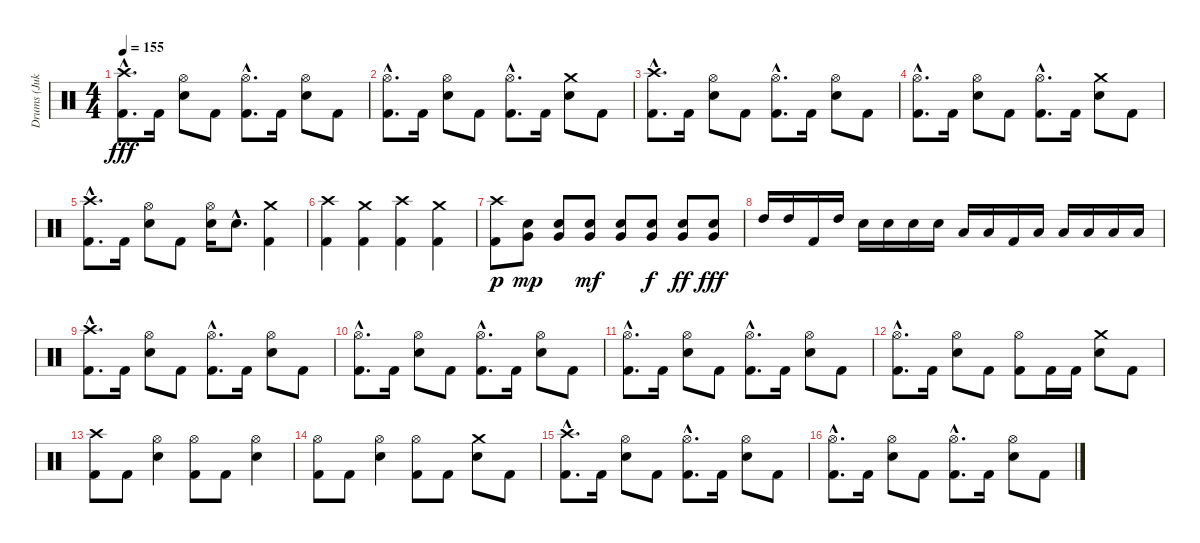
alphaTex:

\track ("Drums (Jukka)" "Drums (Juk") {instrument percussion}
\staff {score}
\articulation defaults
\ts (4 4)
\tempo 155
\clef neutral
\ks c
("Kick (hit) 2"{hac} "Crash high (hit)"{hac}).8{d dy fff} "Kick (hit) 2".16 ("Snare (hit) 2" "Hi-Hat (open)").8 "Kick (hit) 2".8 ("Kick (hit) 2"{hac} "Hi-Hat (open)"{hac}).8{d} "Kick (hit) 2".16 ("Snare (hit) 2" "Hi-Hat (open)").8 "Kick (hit) 2".8 |
("Kick (hit) 2"{hac} "Hi-Hat (open)"{hac}).8{d} "Kick (hit) 2".16 ("Snare (hit) 2" "Hi-Hat (open)").8 "Kick (hit) 2".8 ("Kick (hit) 2"{hac} "Hi-Hat (open)"{hac}).8{d} "Kick (hit) 2".16 ("Snare (hit) 2" "Crash medium (hit)").8 "Kick (hit) 2".8 |
("Kick (hit) 2"{hac} "Crash high (hit)"{hac}).8{d} "Kick (hit) 2".16 ("Snare (hit) 2" "Hi-Hat (open)").8 "Kick (hit) 2".8 ("Kick (hit) 2"{hac} "Hi-Hat (open)"{hac}).8{d} "Kick (hit) 2".16 ("Snare (hit) 2" "Hi-Hat (open)").8 "Kick (hit) 2".8 |
("Kick (hit) 2"{hac} "Hi-Hat (open)"{hac}).8{d} "Kick (hit) 2".16 ("Snare (hit) 2" "Hi-Hat (open)").8 "Kick (hit) 2".8 ("Kick (hit) 2"{hac} "Hi-Hat (open)"{hac}).8{d} "Kick (hit) 2".16 ("Snare (hit) 2" "Crash medium (hit)").8 "Kick (hit) 2".8 |
("Kick (hit) 2"{hac} "Crash high (hit)"{hac}).8{d} "Kick (hit) 2".16 ("Snare (hit) 2" "Hi-Hat (open)").8 "Kick (hit) 2".8 ("Snare (hit) 2" "Hi-Hat (open)").16 "Snare (hit) 2"{hac}.8{d} ("Kick (hit) 2" "Crash medium (hit)").4 |
("Kick (hit) 2" "Crash high (hit)").4 ("Kick (hit) 2" "Crash medium (hit)").4 ("Kick (hit) 2" "Crash high (hit)").4 ("Kick (hit) 2" "Crash medium (hit)").4 |
("Kick (hit) 2" "Crash high (hit)").8{dy p} ("Snare (hit) 2" "Very Low Tom (hit)").8{dy mp} ("Snare (hit) 2" "Very Low Tom (hit)").8 ("Snare (hit) 2" "Very Low Tom (hit)").8{dy mf} ("Snare (hit) 2" "Very Low Tom (hit)").8 ("Snare (hit) 2" "Very Low Tom (hit)").8{dy f} ("Snare (hit) 2" "Very Low Tom (hit)").8{dy ff} ("Snare (hit) 2" "Very Low Tom (hit)").8{dy fff} |
"High Tom (hit)".16 "High Tom (hit)".16 "Kick (hit) 2".16 "High Tom (hit)".16 "Snare (hit) 2".16 "Snare (hit) 2".16 "Snare (hit) 2".16 "Snare (hit) 2".16 "Low Tom (hit)".16 "Low Tom (hit)".16 "Kick (hit) 2".16 "Low Tom (hit)".16 "Low Floor Tom (hit)".16 "Low Floor Tom (hit)".16 "Low Tom (hit)".16 "Low Floor Tom (hit)".16 |
("Kick (hit) 2"{hac} "Crash high (hit)"{hac}).8{d} "Kick (hit) 2".16 ("Snare (hit) 2" "Hi-Hat (open)").8 "Kick (hit) 2".8 ("Kick (hit) 2"{hac} "Hi-Hat (open)"{hac}).8{d} "Kick (hit) 2".16 ("Snare (hit) 2" "Hi-Hat (open)").8 "Kick (hit) 2".8 |
("Kick (hit) 2"{hac} "Hi-Hat (open)"{hac}).8{d} "Kick (hit) 2".16 ("Snare (hit) 2" "Hi-Hat (open)").8 "Kick (hit) 2".8 ("Kick (hit) 2"{hac} "Hi-Hat (open)"{hac}).8{d} "Kick (hit) 2".16 ("Snare (hit) 2" "Hi-Hat (open)").8 "Kick (hit) 2".8 |
("Kick (hit) 2"{hac} "Hi-Hat (open)"{hac}).8{d} "Kick (hit) 2".16 ("Snare (hit) 2" "Hi-Hat (open)").8 "Kick (hit) 2".8 ("Kick (hit) 2"{hac} "Hi-Hat (open)"{hac}).8{d} "Kick (hit) 2".16 ("Snare (hit) 2" "Hi-Hat (open)").8 "Kick (hit) 2".8 |
("Kick (hit) 2"{hac} "Hi-Hat (open)"{hac}).8{d} "Kick (hit) 2".16 ("Snare (hit) 2" "Hi-Hat (open)").8 "Kick (hit) 2".8 ("Kick (hit) 2" "Hi-Hat (open)").8 "Kick (hit) 2".16 "Kick (hit) 2".16 ("Snare (hit) 2" "Crash medium (hit)").8 "Kick (hit) 2".8 |
("Kick (hit) 2" "Crash high (hit)").8 "Kick (hit) 2".8 ("Snare (hit) 2" "Hi-Hat (open)").4 ("Kick (hit) 2" "Hi-Hat (open)").8 "Kick (hit) 2".8 ("Snare (hit) 2" "Hi-Hat (open)").4 |
("Kick (hit) 2" "Hi-Hat (open)").8 "Kick (hit) 2".8 ("Snare (hit) 2" "Hi-Hat (open)").4 ("Kick (hit) 2" "Hi-Hat (open)").8 "Kick (hit) 2".8 ("Snare (hit) 2" "Crash medium (hit)").8 "Kick (hit) 2".8 |
("Kick (hit) 2"{hac} "Crash high (hit)"{hac}).8{d} "Kick (hit) 2".16 ("Snare (hit) 2" "Hi-Hat (open)").8 "Kick (hit) 2".8 ("Kick (hit) 2"{hac} "Hi-Hat (open)"{hac}).8{d} "Kick (hit) 2".16 ("Snare (hit) 2" "Hi-Hat (open)").8 "Kick (hit) 2".8 |
("Kick (hit) 2"{hac} "Hi-Hat (open)"{hac}).8{d} "Kick (hit) 2".16 ("Snare (hit) 2" "Hi-Hat (open)").8 "Kick (hit) 2".8 ("Kick (hit) 2"{hac} "Hi-Hat (open)"{hac}).8{d} "Kick (hit) 2".16 ("Snare (hit) 2" "Hi-Hat (open)").8 "Kick (hit) 2".8
